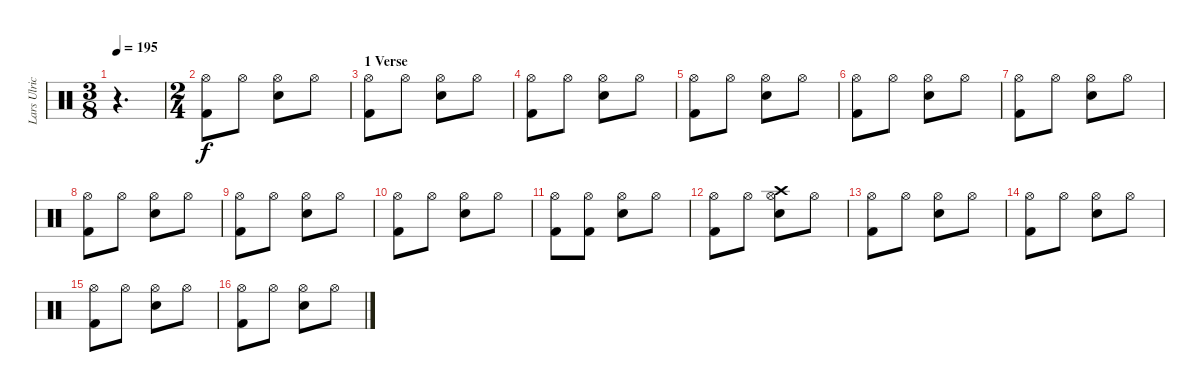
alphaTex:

\track ("Lars Ulrich" "Lars Ulric") {instrument percussion}
\staff {score}
\articulation defaults
\ts (3 8)
\tempo 195
\clef neutral
\ks c
r.4{d dy ff} |
\ts (2 4)
("Kick (hit) 2" "Hi-Hat (open)").8{dy f} "Hi-Hat (open)".8 ("Snare (hit) 2" "Hi-Hat (open)").8 "Hi-Hat (open)".8 |
\section ("" "1 Verse")
("Kick (hit) 2" "Hi-Hat (open)").8 "Hi-Hat (open)".8 ("Snare (hit) 2" "Hi-Hat (open)").8 "Hi-Hat (open)".8 |
("Kick (hit) 2" "Hi-Hat (open)").8 "Hi-Hat (open)".8 ("Snare (hit) 2" "Hi-Hat (open)").8 "Hi-Hat (open)".8 |
("Kick (hit) 2" "Hi-Hat (open)").8 "Hi-Hat (open)".8 ("Snare (hit) 2" "Hi-Hat (open)").8 "Hi-Hat (open)".8 |
("Kick (hit) 2" "Hi-Hat (open)").8 "Hi-Hat (open)".8 ("Snare (hit) 2" "Hi-Hat (open)").8 "Hi-Hat (open)".8 |
("Kick (hit) 2" "Hi-Hat (open)").8 "Hi-Hat (open)".8 ("Snare (hit) 2" "Hi-Hat (open)").8 "Hi-Hat (open)".8 |
("Kick (hit) 2" "Hi-Hat (open)").8 "Hi-Hat (open)".8 ("Snare (hit) 2" "Hi-Hat (open)").8 "Hi-Hat (open)".8 |
("Kick (hit) 2" "Hi-Hat (open)").8 "Hi-Hat (open)".8 ("Snare (hit) 2" "Hi-Hat (open)").8 "Hi-Hat (open)".8 |
("Kick (hit) 2" "Hi-Hat (open)").8 "Hi-Hat (open)".8 ("Snare (hit) 2" "Hi-Hat (open)").8 "Hi-Hat (open)".8 |
("Kick (hit) 2" "Hi-Hat (open)").8 ("Kick (hit) 2" "Hi-Hat (open)").8 ("Snare (hit) 2" "Hi-Hat (open)").8 "Hi-Hat (open)".8 |
("Kick (hit) 2" "Hi-Hat (open)").8 "Hi-Hat (open)".8 ("Snare (hit) 2" "Hi-Hat (open)" "Crash high (hit)").8 "Hi-Hat (open)".8 |
("Kick (hit) 2" "Hi-Hat (open)").8 "Hi-Hat (open)".8 ("Snare (hit) 2" "Hi-Hat (open)").8 "Hi-Hat (open)".8 |
("Kick (hit) 2" "Hi-Hat (open)").8 "Hi-Hat (open)".8 ("Snare (hit) 2" "Hi-Hat (open)").8 "Hi-Hat (open)".8 |
("Kick (hit) 2" "Hi-Hat (open)").8 "Hi-Hat (open)".8 ("Snare (hit) 2" "Hi-Hat (open)").8 "Hi-Hat (open)".8 |
("Kick (hit) 2" "Hi-Hat (open)").8 "Hi-Hat (open)".8 ("Snare (hit) 2" "Hi-Hat (open)").8 "Hi-Hat (open)".8
